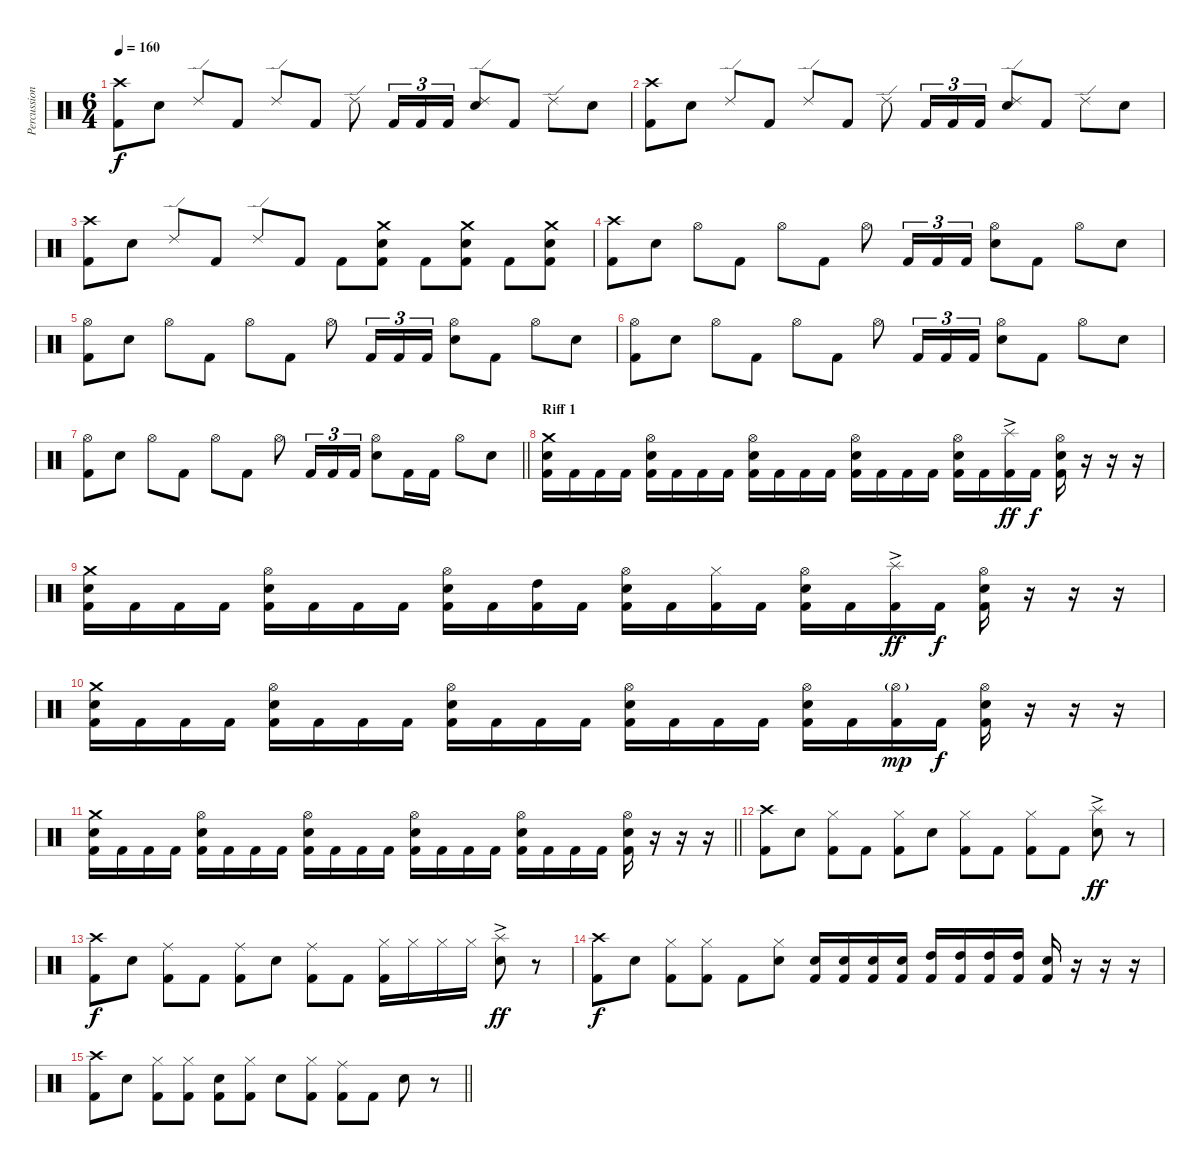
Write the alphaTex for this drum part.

\track ("Percussion" "Percussion") {instrument percussion}
\staff {score}
\articulation defaults
\ts (6 4)
\tempo 160
\clef neutral
\ks c
("Crash high (hit)" "Kick (hit) 2").8{dy f} "Snare (hit) 2".8 "Ride (edge) 2".8 "Kick (hit) 2".8 "Ride (edge) 2".8 "Kick (hit) 2".8 "Ride (edge) 2".8 "Kick (hit) 2".16{tu (3 2)} "Kick (hit) 2".16{tu (3 2)} "Kick (hit) 2".16{tu (3 2)} ("Ride (edge) 2" "Snare (hit) 2").8 "Kick (hit) 2".8 "Ride (edge) 2".8 "Snare (hit) 2".8 |
("Crash high (hit)" "Kick (hit) 2").8 "Snare (hit) 2".8 "Ride (edge) 2".8 "Kick (hit) 2".8 "Ride (edge) 2".8 "Kick (hit) 2".8 "Ride (edge) 2".8 "Kick (hit) 2".16{tu (3 2)} "Kick (hit) 2".16{tu (3 2)} "Kick (hit) 2".16{tu (3 2)} ("Ride (edge) 2" "Snare (hit) 2").8 "Kick (hit) 2".8 "Ride (edge) 2".8 "Snare (hit) 2".8 |
("Crash high (hit)" "Kick (hit) 2").8 "Snare (hit) 2".8 "Ride (edge) 2".8 "Kick (hit) 2".8 "Ride (edge) 2".8 "Kick (hit) 2".8 "Kick (hit) 2".8 ("Snare (hit) 2" "Crash medium (hit)" "Kick (hit) 2").8 "Kick (hit) 2".8 ("Snare (hit) 2" "Crash medium (hit)" "Kick (hit) 2").8 "Kick (hit) 2".8 ("Snare (hit) 2" "Crash medium (hit)" "Kick (hit) 2").8 |
("Crash high (hit)" "Kick (hit) 2").8 "Snare (hit) 2".8 "Hi-Hat (open)".8 "Kick (hit) 2".8 "Hi-Hat (open)".8 "Kick (hit) 2".8 "Hi-Hat (open)".8 "Kick (hit) 2".16{tu (3 2)} "Kick (hit) 2".16{tu (3 2)} "Kick (hit) 2".16{tu (3 2)} ("Hi-Hat (open)" "Snare (hit) 2").8 "Kick (hit) 2".8 "Hi-Hat (open)".8 "Snare (hit) 2".8 |
("Hi-Hat (open)" "Kick (hit) 2").8 "Snare (hit) 2".8 "Hi-Hat (open)".8 "Kick (hit) 2".8 "Hi-Hat (open)".8 "Kick (hit) 2".8 "Hi-Hat (open)".8 "Kick (hit) 2".16{tu (3 2)} "Kick (hit) 2".16{tu (3 2)} "Kick (hit) 2".16{tu (3 2)} ("Hi-Hat (open)" "Snare (hit) 2").8 "Kick (hit) 2".8 "Hi-Hat (open)".8 "Snare (hit) 2".8 |
("Hi-Hat (open)" "Kick (hit) 2").8 "Snare (hit) 2".8 "Hi-Hat (open)".8 "Kick (hit) 2".8 "Hi-Hat (open)".8 "Kick (hit) 2".8 "Hi-Hat (open)".8 "Kick (hit) 2".16{tu (3 2)} "Kick (hit) 2".16{tu (3 2)} "Kick (hit) 2".16{tu (3 2)} ("Hi-Hat (open)" "Snare (hit) 2").8 "Kick (hit) 2".8 "Hi-Hat (open)".8 "Snare (hit) 2".8 |
\barLineRight lightlight
("Hi-Hat (open)" "Kick (hit) 2").8 "Snare (hit) 2".8 "Hi-Hat (open)".8 "Kick (hit) 2".8 "Hi-Hat (open)".8 "Kick (hit) 2".8 "Hi-Hat (open)".8 "Kick (hit) 2".16{tu (3 2)} "Kick (hit) 2".16{tu (3 2)} "Kick (hit) 2".16{tu (3 2)} ("Hi-Hat (open)" "Snare (hit) 2").8 "Kick (hit) 2".16 "Kick (hit) 2".16 "Hi-Hat (open)".8 "Snare (hit) 2".8 |
\section ("" "Riff 1")
("Snare (hit) 2" "Kick (hit) 2" "Crash medium (hit)").16 "Kick (hit) 2".16 "Kick (hit) 2".16 "Kick (hit) 2".16 ("Hi-Hat (open)" "Snare (hit) 2" "Kick (hit) 2").16 "Kick (hit) 2".16 "Kick (hit) 2".16 "Kick (hit) 2".16 ("Hi-Hat (open)" "Snare (hit) 2" "Kick (hit) 2").16 "Kick (hit) 2".16 "Kick (hit) 2".16 "Kick (hit) 2".16 ("Hi-Hat (open)" "Snare (hit) 2" "Kick (hit) 2").16 "Kick (hit) 2".16 "Kick (hit) 2".16 "Kick (hit) 2".16 ("Hi-Hat (open)" "Snare (hit) 2" "Kick (hit) 2").16 "Kick (hit) 2".16 ("Splash (hit)"{ac} "Kick (hit) 2").16{dy ff} "Kick (hit) 2".16{dy f} ("Snare (hit) 2" "Hi-Hat (open)" "Kick (hit) 2").16 r.16 r.16 r.16 |
("Snare (hit) 2" "Kick (hit) 2" "Crash medium (hit)").16 "Kick (hit) 2".16 "Kick (hit) 2".16 "Kick (hit) 2".16 ("Hi-Hat (open)" "Snare (hit) 2" "Kick (hit) 2").16 "Kick (hit) 2".16 "Kick (hit) 2".16 "Kick (hit) 2".16 ("Hi-Hat (open)" "Snare (hit) 2" "Kick (hit) 2").16 "Kick (hit) 2".16 ("High Tom (hit)" "Kick (hit) 2").16 "Kick (hit) 2".16 ("Hi-Hat (open)" "Snare (hit) 2" "Kick (hit) 2").16 "Kick (hit) 2".16 ("Hi-Hat (closed)" "Kick (hit) 2").16 "Kick (hit) 2".16 ("Hi-Hat (open)" "Snare (hit) 2" "Kick (hit) 2").16 "Kick (hit) 2".16 ("Splash (hit)"{ac} "Kick (hit) 2").16{dy ff} "Kick (hit) 2".16{dy f} ("Snare (hit) 2" "Hi-Hat (open)" "Kick (hit) 2").16 r.16 r.16 r.16 |
("Snare (hit) 2" "Kick (hit) 2" "Crash medium (hit)").16 "Kick (hit) 2".16 "Kick (hit) 2".16 "Kick (hit) 2".16 ("Hi-Hat (open)" "Snare (hit) 2" "Kick (hit) 2").16 "Kick (hit) 2".16 "Kick (hit) 2".16 "Kick (hit) 2".16 ("Hi-Hat (open)" "Snare (hit) 2" "Kick (hit) 2").16 "Kick (hit) 2".16 "Kick (hit) 2".16 "Kick (hit) 2".16 ("Hi-Hat (open)" "Snare (hit) 2" "Kick (hit) 2").16 "Kick (hit) 2".16 "Kick (hit) 2".16 "Kick (hit) 2".16 ("Hi-Hat (open)" "Snare (hit) 2" "Kick (hit) 2").16 "Kick (hit) 2".16 ("Hi-Hat (open)"{g} "Kick (hit) 2").16{dy mp} "Kick (hit) 2".16{dy f} ("Snare (hit) 2" "Hi-Hat (open)" "Kick (hit) 2").16 r.16 r.16 r.16 |
\barLineRight lightlight
("Snare (hit) 2" "Kick (hit) 2" "Crash medium (hit)").16 "Kick (hit) 2".16 "Kick (hit) 2".16 "Kick (hit) 2".16 ("Hi-Hat (open)" "Snare (hit) 2" "Kick (hit) 2").16 "Kick (hit) 2".16 "Kick (hit) 2".16 "Kick (hit) 2".16 ("Hi-Hat (open)" "Snare (hit) 2" "Kick (hit) 2").16 "Kick (hit) 2".16 "Kick (hit) 2".16 "Kick (hit) 2".16 ("Hi-Hat (open)" "Snare (hit) 2" "Kick (hit) 2").16 "Kick (hit) 2".16 "Kick (hit) 2".16 "Kick (hit) 2".16 ("Hi-Hat (open)" "Snare (hit) 2" "Kick (hit) 2").16 "Kick (hit) 2".16 "Kick (hit) 2".16 "Kick (hit) 2".16 ("Snare (hit) 2" "Hi-Hat (open)" "Kick (hit) 2").16 r.16 r.16 r.16 |
("Crash high (hit)" "Kick (hit) 2").8 "Snare (hit) 2".8 ("Hi-Hat (closed)" "Kick (hit) 2").8 "Kick (hit) 2".8 ("Hi-Hat (closed)" "Kick (hit) 2").8 "Snare (hit) 2".8 ("Hi-Hat (closed)" "Kick (hit) 2").8 "Kick (hit) 2".8 ("Hi-Hat (closed)" "Kick (hit) 2").8 "Kick (hit) 2".8 ("Splash (hit)"{ac} "Snare (hit) 2").8{dy ff} r.8 |
("Crash high (hit)" "Kick (hit) 2").8{dy f} "Snare (hit) 2".8 ("Ride (middle)" "Kick (hit) 2").8 "Kick (hit) 2".8 ("Ride (middle)" "Kick (hit) 2").8 "Snare (hit) 2".8 ("Ride (middle)" "Kick (hit) 2").8 "Kick (hit) 2".8 ("Hi-Hat (closed)" "Kick (hit) 2").16 "Hi-Hat (closed)".16 "Hi-Hat (closed)".16 "Hi-Hat (closed)".16 ("Splash (hit)"{ac} "Snare (hit) 2").8{dy ff} r.8 |
("Crash high (hit)" "Kick (hit) 2").8{dy f} "Snare (hit) 2".8 ("Hi-Hat (closed)" "Kick (hit) 2").8 ("Hi-Hat (closed)" "Kick (hit) 2").8 "Kick (hit) 2".8 ("Hi-Hat (closed)" "Snare (hit) 2").8 ("Snare (hit) 2" "Kick (hit) 2").16 ("Snare (hit) 2" "Kick (hit) 2").16 ("Snare (hit) 2" "Kick (hit) 2").16 ("Snare (hit) 2" "Kick (hit) 2").16 ("High Tom (hit)" "Kick (hit) 2").16 ("High Tom (hit)" "Kick (hit) 2").16 ("High Tom (hit)" "Kick (hit) 2").16 ("High Tom (hit)" "Kick (hit) 2").16 ("Snare (hit) 2" "Kick (hit) 2").16 r.16 r.16 r.16 |
\barLineRight lightlight
("Crash high (hit)" "Kick (hit) 2").8 "Snare (hit) 2".8 ("Hi-Hat (closed)" "Kick (hit) 2").8 ("Hi-Hat (closed)" "Kick (hit) 2").8 ("Snare (hit) 2" "Kick (hit) 2").8 ("Kick (hit) 2" "Hi-Hat (closed)").8 "Snare (hit) 2".8 ("Kick (hit) 2" "Hi-Hat (closed)").8 ("Kick (hit) 2" "Ride (middle)").8 "Kick (hit) 2".8 "Snare (hit) 2".8 r.8
